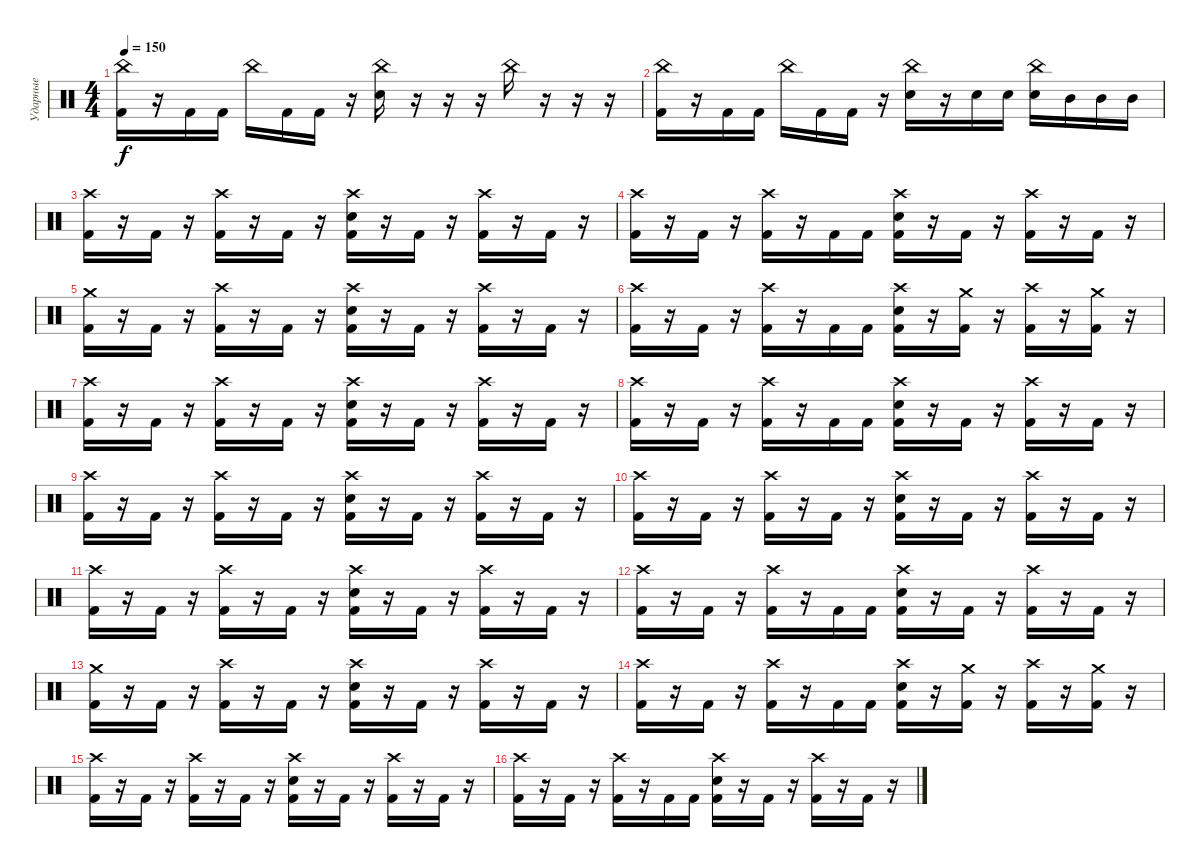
\track ("Ударные" "Ударные") {instrument percussion}
\staff {score}
\articulation defaults
\ts (4 4)
\tempo 150
\clef neutral
\ks c
("China (hit)" "Kick (hit) 2").16{dy f} r.16 "Kick (hit) 2".16 "Kick (hit) 2".16 "China (hit)".16 "Kick (hit) 2".16 "Kick (hit) 2".16 r.16 ("China (hit)" "Electric Snare (hit)").16 r.16 r.16 r.16 "China (hit)".16 r.16 r.16 r.16 |
("China (hit)" "Kick (hit) 2").16 r.16 "Kick (hit) 2".16 "Kick (hit) 2".16 "China (hit)".16 "Kick (hit) 2".16 "Kick (hit) 2".16 r.16 ("China (hit)" "Electric Snare (hit)").16 r.16 "Electric Snare (hit)".16 "Electric Snare (hit)".16 ("China (hit)" "Electric Snare (hit)").16 "Mid Tom (hit)".16 "Mid Tom (hit)".16 "Mid Tom (hit)".16 |
("Crash high (hit)" "Kick (hit) 2").16 r.16 "Kick (hit) 2".16 r.16 ("Crash high (hit)" "Kick (hit) 2").16 r.16 "Kick (hit) 2".16 r.16 ("Crash high (hit)" "Electric Snare (hit)" "Kick (hit) 2").16 r.16 "Kick (hit) 2".16 r.16 ("Crash high (hit)" "Kick (hit) 2").16 r.16 "Kick (hit) 2".16 r.16 |
("Crash high (hit)" "Kick (hit) 2").16 r.16 "Kick (hit) 2".16 r.16 ("Crash high (hit)" "Kick (hit) 2").16 r.16 "Kick (hit) 2".16 "Kick (hit) 2".16 ("Crash high (hit)" "Electric Snare (hit)" "Kick (hit) 2").16 r.16 "Kick (hit) 2".16 r.16 ("Crash high (hit)" "Kick (hit) 2").16 r.16 "Kick (hit) 2".16 r.16 |
("Crash medium (hit)" "Kick (hit) 2").16 r.16 "Kick (hit) 2".16 r.16 ("Crash high (hit)" "Kick (hit) 2").16 r.16 "Kick (hit) 2".16 r.16 ("Crash high (hit)" "Electric Snare (hit)" "Kick (hit) 2").16 r.16 "Kick (hit) 2".16 r.16 ("Crash high (hit)" "Kick (hit) 2").16 r.16 "Kick (hit) 2".16 r.16 |
("Crash high (hit)" "Kick (hit) 2").16 r.16 "Kick (hit) 2".16 r.16 ("Crash high (hit)" "Kick (hit) 2").16 r.16 "Kick (hit) 2".16 "Kick (hit) 2".16 ("Crash high (hit)" "Electric Snare (hit)" "Kick (hit) 2").16 r.16 ("Crash medium (hit)" "Kick (hit) 2").16 r.16 ("Crash high (hit)" "Kick (hit) 2").16 r.16 ("Crash medium (hit)" "Kick (hit) 2").16 r.16 |
("Crash high (hit)" "Kick (hit) 2").16 r.16 "Kick (hit) 2".16 r.16 ("Crash high (hit)" "Kick (hit) 2").16 r.16 "Kick (hit) 2".16 r.16 ("Crash high (hit)" "Electric Snare (hit)" "Kick (hit) 2").16 r.16 "Kick (hit) 2".16 r.16 ("Crash high (hit)" "Kick (hit) 2").16 r.16 "Kick (hit) 2".16 r.16 |
("Crash high (hit)" "Kick (hit) 2").16 r.16 "Kick (hit) 2".16 r.16 ("Crash high (hit)" "Kick (hit) 2").16 r.16 "Kick (hit) 2".16 "Kick (hit) 2".16 ("Crash high (hit)" "Electric Snare (hit)" "Kick (hit) 2").16 r.16 "Kick (hit) 2".16 r.16 ("Crash high (hit)" "Kick (hit) 2").16 r.16 "Kick (hit) 2".16 r.16 |
("Crash high (hit)" "Kick (hit) 2").16 r.16 "Kick (hit) 2".16 r.16 ("Crash high (hit)" "Kick (hit) 2").16 r.16 "Kick (hit) 2".16 r.16 ("Crash high (hit)" "Electric Snare (hit)" "Kick (hit) 2").16 r.16 "Kick (hit) 2".16 r.16 ("Crash high (hit)" "Kick (hit) 2").16 r.16 "Kick (hit) 2".16 r.16 |
("Crash high (hit)" "Kick (hit) 2").16 r.16 "Kick (hit) 2".16 r.16 ("Crash high (hit)" "Kick (hit) 2").16 r.16 "Kick (hit) 2".16 r.16 ("Crash high (hit)" "Electric Snare (hit)" "Kick (hit) 2").16 r.16 "Kick (hit) 2".16 r.16 ("Crash high (hit)" "Kick (hit) 2").16 r.16 "Kick (hit) 2".16 r.16 |
("Crash high (hit)" "Kick (hit) 2").16 r.16 "Kick (hit) 2".16 r.16 ("Crash high (hit)" "Kick (hit) 2").16 r.16 "Kick (hit) 2".16 r.16 ("Crash high (hit)" "Electric Snare (hit)" "Kick (hit) 2").16 r.16 "Kick (hit) 2".16 r.16 ("Crash high (hit)" "Kick (hit) 2").16 r.16 "Kick (hit) 2".16 r.16 |
("Crash high (hit)" "Kick (hit) 2").16 r.16 "Kick (hit) 2".16 r.16 ("Crash high (hit)" "Kick (hit) 2").16 r.16 "Kick (hit) 2".16 "Kick (hit) 2".16 ("Crash high (hit)" "Electric Snare (hit)" "Kick (hit) 2").16 r.16 "Kick (hit) 2".16 r.16 ("Crash high (hit)" "Kick (hit) 2").16 r.16 "Kick (hit) 2".16 r.16 |
("Crash medium (hit)" "Kick (hit) 2").16 r.16 "Kick (hit) 2".16 r.16 ("Crash high (hit)" "Kick (hit) 2").16 r.16 "Kick (hit) 2".16 r.16 ("Crash high (hit)" "Electric Snare (hit)" "Kick (hit) 2").16 r.16 "Kick (hit) 2".16 r.16 ("Crash high (hit)" "Kick (hit) 2").16 r.16 "Kick (hit) 2".16 r.16 |
("Crash high (hit)" "Kick (hit) 2").16 r.16 "Kick (hit) 2".16 r.16 ("Crash high (hit)" "Kick (hit) 2").16 r.16 "Kick (hit) 2".16 "Kick (hit) 2".16 ("Crash high (hit)" "Electric Snare (hit)" "Kick (hit) 2").16 r.16 ("Crash medium (hit)" "Kick (hit) 2").16 r.16 ("Crash high (hit)" "Kick (hit) 2").16 r.16 ("Crash medium (hit)" "Kick (hit) 2").16 r.16 |
("Crash high (hit)" "Kick (hit) 2").16 r.16 "Kick (hit) 2".16 r.16 ("Crash high (hit)" "Kick (hit) 2").16 r.16 "Kick (hit) 2".16 r.16 ("Crash high (hit)" "Electric Snare (hit)" "Kick (hit) 2").16 r.16 "Kick (hit) 2".16 r.16 ("Crash high (hit)" "Kick (hit) 2").16 r.16 "Kick (hit) 2".16 r.16 |
("Crash high (hit)" "Kick (hit) 2").16 r.16 "Kick (hit) 2".16 r.16 ("Crash high (hit)" "Kick (hit) 2").16 r.16 "Kick (hit) 2".16 "Kick (hit) 2".16 ("Crash high (hit)" "Electric Snare (hit)" "Kick (hit) 2").16 r.16 "Kick (hit) 2".16 r.16 ("Crash high (hit)" "Kick (hit) 2").16 r.16 "Kick (hit) 2".16 r.16
